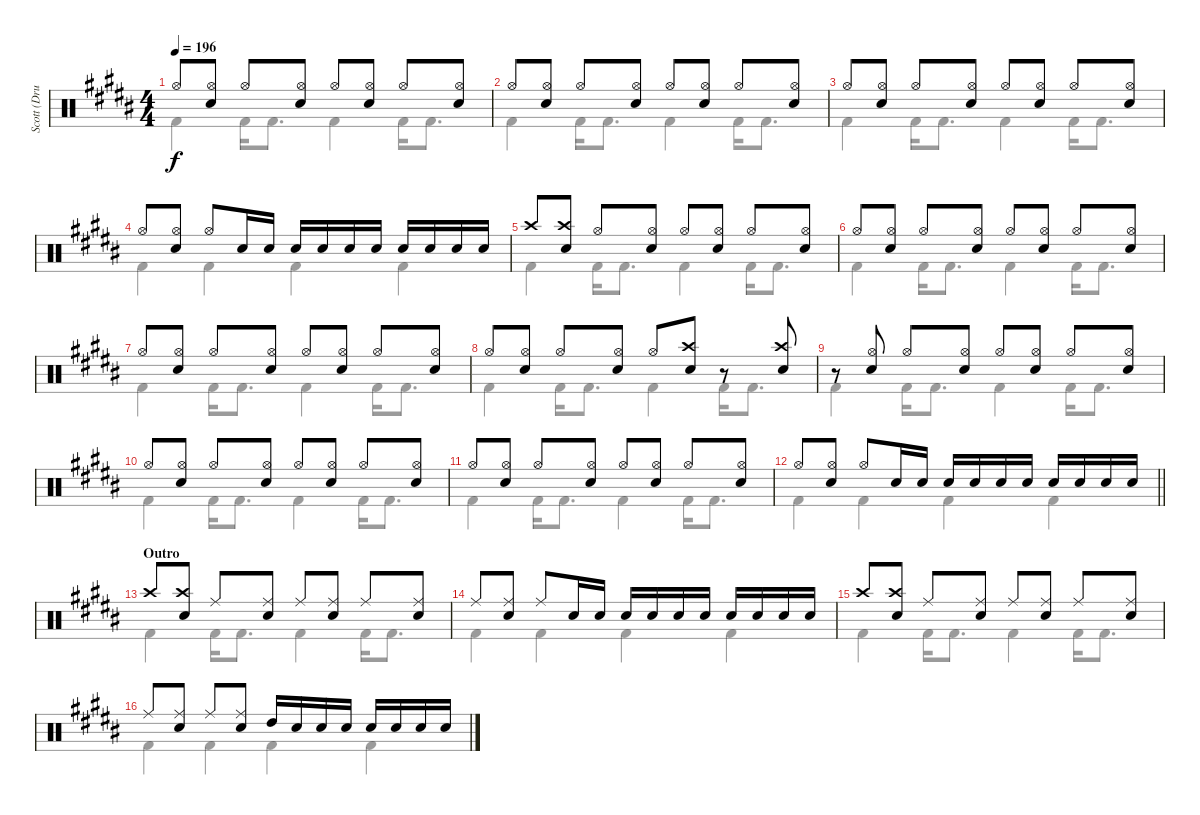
\track ("Scott (Drums)" "Scott (Dru") {instrument percussion}
\staff {score}
\articulation defaults
\voice
\ts (4 4)
\tempo 196
\clef neutral
\ks b "Hi-Hat (open)".8{dy f}
("Hi-Hat (open)" "Electric Snare (hit)").8 "Hi-Hat (open)".8 ("Hi-Hat (open)" "Electric Snare (hit)").8 "Hi-Hat (open)".8 ("Hi-Hat (open)" "Electric Snare (hit)").8 "Hi-Hat (open)".8 ("Hi-Hat (open)" "Electric Snare (hit)").8 |
"Hi-Hat (open)".8 ("Hi-Hat (open)" "Electric Snare (hit)").8 "Hi-Hat (open)".8 ("Hi-Hat (open)" "Electric Snare (hit)").8 "Hi-Hat (open)".8 ("Hi-Hat (open)" "Electric Snare (hit)").8 "Hi-Hat (open)".8 ("Hi-Hat (open)" "Electric Snare (hit)").8 |
"Hi-Hat (open)".8 ("Hi-Hat (open)" "Electric Snare (hit)").8 "Hi-Hat (open)".8 ("Hi-Hat (open)" "Electric Snare (hit)").8 "Hi-Hat (open)".8 ("Hi-Hat (open)" "Electric Snare (hit)").8 "Hi-Hat (open)".8 ("Hi-Hat (open)" "Electric Snare (hit)").8 |
"Hi-Hat (open)".8 ("Hi-Hat (open)" "Electric Snare (hit)").8 "Hi-Hat (open)".8 "Electric Snare (hit)".16 "Electric Snare (hit)".16 "Electric Snare (hit)".16 "Electric Snare (hit)".16 "Electric Snare (hit)".16 "Electric Snare (hit)".16 "Electric Snare (hit)".16 "Electric Snare (hit)".16 "Electric Snare (hit)".16 "Electric Snare (hit)".16 |
"Crash high (hit)".8 ("Crash high (hit)" "Electric Snare (hit)").8 "Hi-Hat (open)".8 ("Hi-Hat (open)" "Electric Snare (hit)").8 "Hi-Hat (open)".8 ("Hi-Hat (open)" "Electric Snare (hit)").8 "Hi-Hat (open)".8 ("Hi-Hat (open)" "Electric Snare (hit)").8 |
"Hi-Hat (open)".8 ("Hi-Hat (open)" "Electric Snare (hit)").8 "Hi-Hat (open)".8 ("Hi-Hat (open)" "Electric Snare (hit)").8 "Hi-Hat (open)".8 ("Hi-Hat (open)" "Electric Snare (hit)").8 "Hi-Hat (open)".8 ("Hi-Hat (open)" "Electric Snare (hit)").8 |
"Hi-Hat (open)".8 ("Hi-Hat (open)" "Electric Snare (hit)").8 "Hi-Hat (open)".8 ("Hi-Hat (open)" "Electric Snare (hit)").8 "Hi-Hat (open)".8 ("Hi-Hat (open)" "Electric Snare (hit)").8 "Hi-Hat (open)".8 ("Hi-Hat (open)" "Electric Snare (hit)").8 |
"Hi-Hat (open)".8 ("Hi-Hat (open)" "Electric Snare (hit)").8 "Hi-Hat (open)".8 ("Hi-Hat (open)" "Electric Snare (hit)").8 "Hi-Hat (open)".8 ("Crash high (hit)" "Electric Snare (hit)").8 r.8 ("Crash high (hit)" "Electric Snare (hit)").8 |
r.8 ("Hi-Hat (open)" "Electric Snare (hit)").8 "Hi-Hat (open)".8 ("Hi-Hat (open)" "Electric Snare (hit)").8 "Hi-Hat (open)".8 ("Hi-Hat (open)" "Electric Snare (hit)").8 "Hi-Hat (open)".8 ("Hi-Hat (open)" "Electric Snare (hit)").8 |
"Hi-Hat (open)".8 ("Hi-Hat (open)" "Electric Snare (hit)").8 "Hi-Hat (open)".8 ("Hi-Hat (open)" "Electric Snare (hit)").8 "Hi-Hat (open)".8 ("Hi-Hat (open)" "Electric Snare (hit)").8 "Hi-Hat (open)".8 ("Hi-Hat (open)" "Electric Snare (hit)").8 |
"Hi-Hat (open)".8 ("Hi-Hat (open)" "Electric Snare (hit)").8 "Hi-Hat (open)".8 ("Hi-Hat (open)" "Electric Snare (hit)").8 "Hi-Hat (open)".8 ("Hi-Hat (open)" "Electric Snare (hit)").8 "Hi-Hat (open)".8 ("Hi-Hat (open)" "Electric Snare (hit)").8 |
\barLineRight lightlight "Hi-Hat (open)".8
("Hi-Hat (open)" "Electric Snare (hit)").8 "Hi-Hat (open)".8 "Electric Snare (hit)".16 "Electric Snare (hit)".16 "Electric Snare (hit)".16 "Electric Snare (hit)".16 "Electric Snare (hit)".16 "Electric Snare (hit)".16 "Electric Snare (hit)".16 "Electric Snare (hit)".16 "Electric Snare (hit)".16 "Electric Snare (hit)".16 |
\section ("" "Outro")
"Crash high (hit)".8 ("Crash high (hit)" "Electric Snare (hit)").8 "Ride (middle)".8 ("Ride (middle)" "Electric Snare (hit)").8 "Ride (middle)".8 ("Ride (middle)" "Electric Snare (hit)").8 "Ride (middle)".8 ("Ride (middle)" "Electric Snare (hit)").8 |
"Ride (middle)".8 ("Ride (middle)" "Electric Snare (hit)").8 "Ride (middle)".8 "Electric Snare (hit)".16 "Electric Snare (hit)".16 "Electric Snare (hit)".16 "Electric Snare (hit)".16 "Electric Snare (hit)".16 "Electric Snare (hit)".16 "Electric Snare (hit)".16 "Electric Snare (hit)".16 "Electric Snare (hit)".16 "Electric Snare (hit)".16 |
"Crash high (hit)".8 ("Crash high (hit)" "Electric Snare (hit)").8 "Ride (middle)".8 ("Ride (middle)" "Electric Snare (hit)").8 "Ride (middle)".8 ("Ride (middle)" "Electric Snare (hit)").8 "Ride (middle)".8 ("Ride (middle)" "Electric Snare (hit)").8 |
"Ride (middle)".8 ("Ride (middle)" "Electric Snare (hit)").8 "Ride (middle)".8 ("Ride (middle)" "Electric Snare (hit)").8 "High Tom (hit)".16 "Electric Snare (hit)".16 "Electric Snare (hit)".16 "Electric Snare (hit)".16 "Electric Snare (hit)".16 "Electric Snare (hit)".16 "Electric Snare (hit)".16 "Electric Snare (hit)".16
\voice
\clef neutral
\ottava regular
\simile none
\ks b "Kick (hit) 2".4{dy f} "Kick (hit) 2".16 "Kick (hit) 2".8{d} "Kick (hit) 2".4 "Kick (hit) 2".16 "Kick (hit) 2".8{d}
|
"Kick (hit) 2".4 "Kick (hit) 2".16 "Kick (hit) 2".8{d} "Kick (hit) 2".4 "Kick (hit) 2".16 "Kick (hit) 2".8{d} |
"Kick (hit) 2".4 "Kick (hit) 2".16 "Kick (hit) 2".8{d} "Kick (hit) 2".4 "Kick (hit) 2".16 "Kick (hit) 2".8{d} |
"Kick (hit) 2".4 "Kick (hit) 2".4 "Kick (hit) 2".4 "Kick (hit) 2".4 |
"Kick (hit) 2".4 "Kick (hit) 2".16 "Kick (hit) 2".8{d} "Kick (hit) 2".4 "Kick (hit) 2".16 "Kick (hit) 2".8{d} |
"Kick (hit) 2".4 "Kick (hit) 2".16 "Kick (hit) 2".8{d} "Kick (hit) 2".4 "Kick (hit) 2".16 "Kick (hit) 2".8{d} |
"Kick (hit) 2".4 "Kick (hit) 2".16 "Kick (hit) 2".8{d} "Kick (hit) 2".4 "Kick (hit) 2".16 "Kick (hit) 2".8{d} |
"Kick (hit) 2".4 "Kick (hit) 2".16 "Kick (hit) 2".8{d} "Kick (hit) 2".4 "Kick (hit) 2".16 "Kick (hit) 2".8{d} |
"Kick (hit) 2".4 "Kick (hit) 2".16 "Kick (hit) 2".8{d} "Kick (hit) 2".4 "Kick (hit) 2".16 "Kick (hit) 2".8{d} |
"Kick (hit) 2".4 "Kick (hit) 2".16 "Kick (hit) 2".8{d} "Kick (hit) 2".4 "Kick (hit) 2".16 "Kick (hit) 2".8{d} |
"Kick (hit) 2".4 "Kick (hit) 2".16 "Kick (hit) 2".8{d} "Kick (hit) 2".4 "Kick (hit) 2".16 "Kick (hit) 2".8{d} |
\barLineRight lightlight "Kick (hit) 2".4 "Kick (hit) 2".4 "Kick (hit) 2".4 "Kick (hit) 2".4
|
"Kick (hit) 2".4 "Kick (hit) 2".16 "Kick (hit) 2".8{d} "Kick (hit) 2".4 "Kick (hit) 2".16 "Kick (hit) 2".8{d} |
"Kick (hit) 2".4 "Kick (hit) 2".4 "Kick (hit) 2".4 "Kick (hit) 2".4 |
"Kick (hit) 2".4 "Kick (hit) 2".16 "Kick (hit) 2".8{d} "Kick (hit) 2".4 "Kick (hit) 2".16 "Kick (hit) 2".8{d} |
"Kick (hit) 2".4 "Kick (hit) 2".4 "Kick (hit) 2".4 "Kick (hit) 2".4
